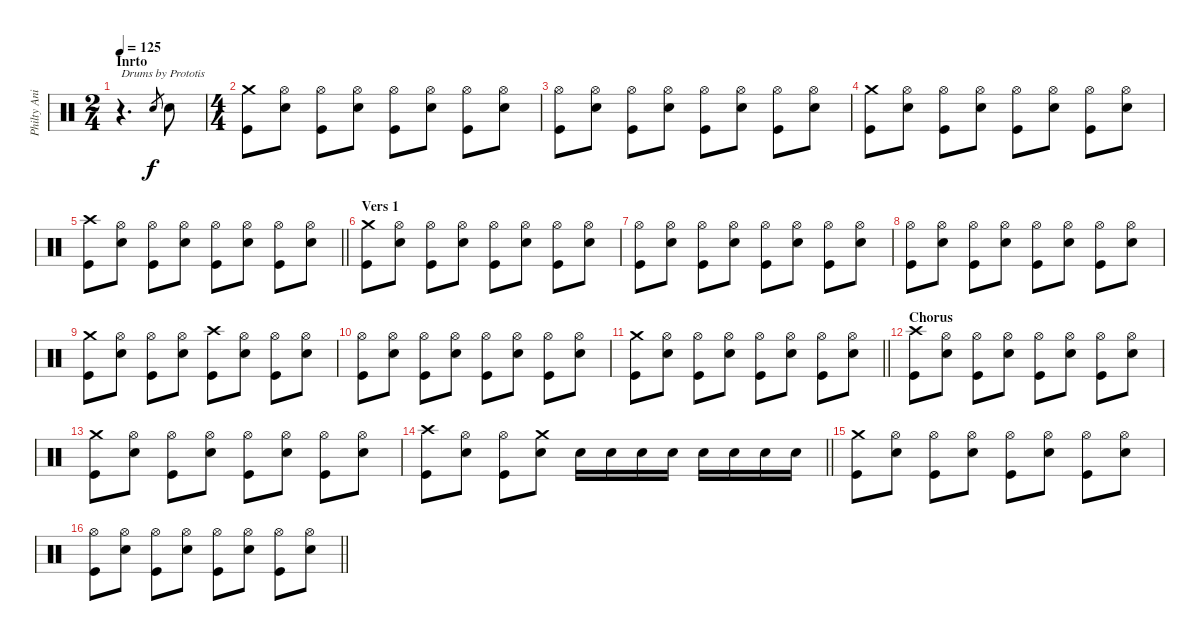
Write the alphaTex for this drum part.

\track ("Philty Animal Taylor" "Philty Ani") {instrument percussion}
\staff {score}
\articulation defaults
\ts (2 4)
\section ("" "Inrto")
\tempo 125
\clef neutral
\ks c
r.4{d txt "Drums by Prototis" dy f} "Electric Snare (hit)".8{gr} "Electric Snare (hit)".8 |
\ts (4 4)
("Crash medium (hit)" "Kick (hit)").8 ("Hi-Hat (open)" "Electric Snare (hit)").8 ("Hi-Hat (open)" "Kick (hit)").8 ("Hi-Hat (open)" "Electric Snare (hit)").8 ("Hi-Hat (open)" "Kick (hit)").8 ("Hi-Hat (open)" "Electric Snare (hit)").8 ("Hi-Hat (open)" "Kick (hit)").8 ("Hi-Hat (open)" "Electric Snare (hit)").8 |
("Hi-Hat (open)" "Kick (hit)").8 ("Hi-Hat (open)" "Electric Snare (hit)").8 ("Hi-Hat (open)" "Kick (hit)").8 ("Hi-Hat (open)" "Electric Snare (hit)").8 ("Hi-Hat (open)" "Kick (hit)").8 ("Hi-Hat (open)" "Electric Snare (hit)").8 ("Hi-Hat (open)" "Kick (hit)").8 ("Hi-Hat (open)" "Electric Snare (hit)").8 |
("Crash medium (hit)" "Kick (hit)").8 ("Hi-Hat (open)" "Electric Snare (hit)").8 ("Hi-Hat (open)" "Kick (hit)").8 ("Hi-Hat (open)" "Electric Snare (hit)").8 ("Hi-Hat (open)" "Kick (hit)").8 ("Hi-Hat (open)" "Electric Snare (hit)").8 ("Hi-Hat (open)" "Kick (hit)").8 ("Hi-Hat (open)" "Electric Snare (hit)").8 |
\barLineRight lightlight
("Crash high (hit)" "Kick (hit)").8 ("Hi-Hat (open)" "Electric Snare (hit)").8 ("Hi-Hat (open)" "Kick (hit)").8 ("Hi-Hat (open)" "Electric Snare (hit)").8 ("Hi-Hat (open)" "Kick (hit)").8 ("Hi-Hat (open)" "Electric Snare (hit)").8 ("Hi-Hat (open)" "Kick (hit)").8 ("Hi-Hat (open)" "Electric Snare (hit)").8 |
\section ("" "Vers 1")
("Crash medium (hit)" "Kick (hit)").8 ("Hi-Hat (open)" "Electric Snare (hit)").8 ("Hi-Hat (open)" "Kick (hit)").8 ("Hi-Hat (open)" "Electric Snare (hit)").8 ("Hi-Hat (open)" "Kick (hit)").8 ("Hi-Hat (open)" "Electric Snare (hit)").8 ("Hi-Hat (open)" "Kick (hit)").8 ("Hi-Hat (open)" "Electric Snare (hit)").8 |
("Hi-Hat (open)" "Kick (hit)").8 ("Hi-Hat (open)" "Electric Snare (hit)").8 ("Hi-Hat (open)" "Kick (hit)").8 ("Hi-Hat (open)" "Electric Snare (hit)").8 ("Hi-Hat (open)" "Kick (hit)").8 ("Hi-Hat (open)" "Electric Snare (hit)").8 ("Hi-Hat (open)" "Kick (hit)").8 ("Hi-Hat (open)" "Electric Snare (hit)").8 |
("Hi-Hat (open)" "Kick (hit)").8 ("Hi-Hat (open)" "Electric Snare (hit)").8 ("Hi-Hat (open)" "Kick (hit)").8 ("Hi-Hat (open)" "Electric Snare (hit)").8 ("Hi-Hat (open)" "Kick (hit)").8 ("Hi-Hat (open)" "Electric Snare (hit)").8 ("Hi-Hat (open)" "Kick (hit)").8 ("Hi-Hat (open)" "Electric Snare (hit)").8 |
("Crash medium (hit)" "Kick (hit)").8 ("Hi-Hat (open)" "Electric Snare (hit)").8 ("Hi-Hat (open)" "Kick (hit)").8 ("Hi-Hat (open)" "Electric Snare (hit)").8 ("Crash high (hit)" "Kick (hit)").8 ("Hi-Hat (open)" "Electric Snare (hit)").8 ("Hi-Hat (open)" "Kick (hit)").8 ("Hi-Hat (open)" "Electric Snare (hit)").8 |
("Hi-Hat (open)" "Kick (hit)").8 ("Hi-Hat (open)" "Electric Snare (hit)").8 ("Hi-Hat (open)" "Kick (hit)").8 ("Hi-Hat (open)" "Electric Snare (hit)").8 ("Hi-Hat (open)" "Kick (hit)").8 ("Hi-Hat (open)" "Electric Snare (hit)").8 ("Hi-Hat (open)" "Kick (hit)").8 ("Hi-Hat (open)" "Electric Snare (hit)").8 |
\barLineRight lightlight
("Crash medium (hit)" "Kick (hit)").8 ("Hi-Hat (open)" "Electric Snare (hit)").8 ("Hi-Hat (open)" "Kick (hit)").8 ("Hi-Hat (open)" "Electric Snare (hit)").8 ("Hi-Hat (open)" "Kick (hit)").8 ("Hi-Hat (open)" "Electric Snare (hit)").8 ("Hi-Hat (open)" "Kick (hit)").8 ("Hi-Hat (open)" "Electric Snare (hit)").8 |
\section ("" "Chorus")
("Crash high (hit)" "Kick (hit)").8 ("Hi-Hat (open)" "Electric Snare (hit)").8 ("Hi-Hat (open)" "Kick (hit)").8 ("Hi-Hat (open)" "Electric Snare (hit)").8 ("Hi-Hat (open)" "Kick (hit)").8 ("Hi-Hat (open)" "Electric Snare (hit)").8 ("Hi-Hat (open)" "Kick (hit)").8 ("Hi-Hat (open)" "Electric Snare (hit)").8 |
("Crash medium (hit)" "Kick (hit)").8 ("Hi-Hat (open)" "Electric Snare (hit)").8 ("Hi-Hat (open)" "Kick (hit)").8 ("Hi-Hat (open)" "Electric Snare (hit)").8 ("Hi-Hat (open)" "Kick (hit)").8 ("Hi-Hat (open)" "Electric Snare (hit)").8 ("Hi-Hat (open)" "Kick (hit)").8 ("Hi-Hat (open)" "Electric Snare (hit)").8 |
\barLineRight lightlight
("Crash high (hit)" "Kick (hit)").8 ("Hi-Hat (open)" "Electric Snare (hit)").8 ("Hi-Hat (open)" "Kick (hit)").8 ("Crash medium (hit)" "Electric Snare (hit)").8 "Electric Snare (hit)".16 "Electric Snare (hit)".16 "Electric Snare (hit)".16 "Electric Snare (hit)".16 "Electric Snare (hit)".16 "Electric Snare (hit)".16 "Electric Snare (hit)".16 "Electric Snare (hit)".16 |
("Crash medium (hit)" "Kick (hit)").8 ("Hi-Hat (open)" "Electric Snare (hit)").8 ("Hi-Hat (open)" "Kick (hit)").8 ("Hi-Hat (open)" "Electric Snare (hit)").8 ("Hi-Hat (open)" "Kick (hit)").8 ("Hi-Hat (open)" "Electric Snare (hit)").8 ("Hi-Hat (open)" "Kick (hit)").8 ("Hi-Hat (open)" "Electric Snare (hit)").8 |
\barLineRight lightlight
("Hi-Hat (open)" "Kick (hit)").8 ("Hi-Hat (open)" "Electric Snare (hit)").8 ("Hi-Hat (open)" "Kick (hit)").8 ("Hi-Hat (open)" "Electric Snare (hit)").8 ("Hi-Hat (open)" "Kick (hit)").8 ("Hi-Hat (open)" "Electric Snare (hit)").8 ("Hi-Hat (open)" "Kick (hit)").8 ("Hi-Hat (open)" "Electric Snare (hit)").8
